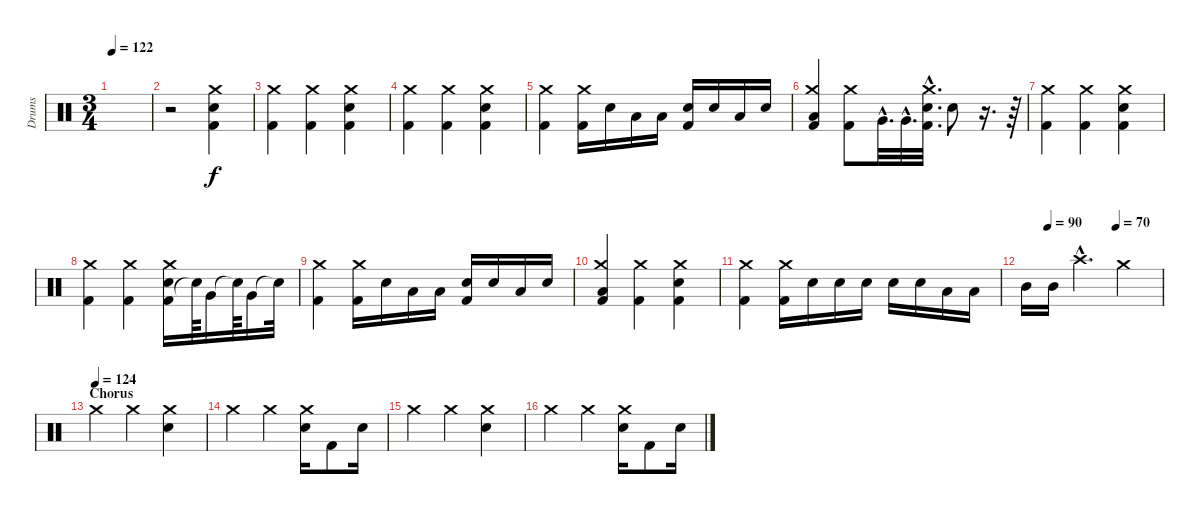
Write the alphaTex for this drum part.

\track ("Drums" "Drums") {instrument percussion}
\staff {score}
\articulation defaults
\ts (3 4)
\tempo 122
\clef neutral
\ks c
|
r.2 ("Kick (hit) 2" "Electric Snare (hit)" "Crash medium (hit)").4 |
("Kick (hit) 2" "Crash medium (hit)").4 ("Kick (hit) 2" "Crash medium (hit)").4 ("Kick (hit) 2" "Electric Snare (hit)" "Crash medium (hit)").4 |
("Kick (hit) 2" "Crash medium (hit)").4 ("Kick (hit) 2" "Crash medium (hit)").4 ("Kick (hit) 2" "Electric Snare (hit)" "Crash medium (hit)").4 |
("Kick (hit) 2" "Crash medium (hit)").4 ("Kick (hit) 2" "Crash medium (hit)").16 "Electric Snare (hit)".16 "Low Tom (hit)".16 "Low Tom (hit)".16 ("Kick (hit) 2" "Electric Snare (hit)").16 "Electric Snare (hit)".16 "Low Tom (hit)".16 "Electric Snare (hit)".16 |
("Kick (hit) 2" "Low Tom (hit)" "Crash medium (hit)").4 ("Kick (hit) 2" "Crash medium (hit)").8 "Very Low Tom (hit)"{hac}.32{d} "Very Low Tom (hit)"{hac}.32{d} ("Kick (hit) 2"{hac} "Electric Snare (hit)"{hac} "Crash medium (hit)"{hac}).32{d} "Electric Snare (hit)".8 r.16{d} r.64 |
("Kick (hit) 2" "Crash medium (hit)").4 ("Kick (hit) 2" "Crash medium (hit)").4 ("Kick (hit) 2" "Electric Snare (hit)" "Crash medium (hit)").4 |
("Kick (hit) 2" "Crash medium (hit)").4 ("Kick (hit) 2" "Crash medium (hit)").4 ("Kick (hit) 2" "Electric Snare (hit)" "Crash medium (hit)").16 "Snare (hit)"{t}.64 "Very Low Tom (hit)".16 "Snare (hit)"{t}.64 "Very Low Tom (hit)".16 "Snare (hit)"{t}.32 |
("Kick (hit) 2" "Crash medium (hit)").4 ("Kick (hit) 2" "Crash medium (hit)").16 "Electric Snare (hit)".16 "Low Tom (hit)".16 "Low Tom (hit)".16 ("Kick (hit) 2" "Electric Snare (hit)").16 "Electric Snare (hit)".16 "Low Tom (hit)".16 "Electric Snare (hit)".16 |
("Kick (hit) 2" "Low Tom (hit)" "Crash medium (hit)").4 ("Kick (hit) 2" "Crash medium (hit)").4 ("Kick (hit) 2" "Electric Snare (hit)" "Crash medium (hit)").4 |
("Kick (hit) 2" "Crash medium (hit)").4 ("Kick (hit) 2" "Crash medium (hit)").16 "Electric Snare (hit)".16 "Electric Snare (hit)".16 "Electric Snare (hit)".16 "Electric Snare (hit)".16 "Electric Snare (hit)".16 "Low Tom (hit)".16 "Low Tom (hit)".16 |
\tempo (90 0.16666666666666666)
\tempo (70 0.6666666666666666)
"Mid Tom (hit)".16 "Mid Tom (hit)".16 "Crash high (hit)"{hac}.4{d} "Crash medium (hit)".4 |
\section ("" "Chorus")
\tempo (124)
"Crash medium (hit)".4 "Crash medium (hit)".4 ("Electric Snare (hit)" "Crash medium (hit)").4 |
"Crash medium (hit)".4 "Crash medium (hit)".4 ("Electric Snare (hit)" "Crash medium (hit)").16 "Kick (hit) 2".8 "Electric Snare (hit)".16 |
"Crash medium (hit)".4 "Crash medium (hit)".4 ("Electric Snare (hit)" "Crash medium (hit)").4 |
"Crash medium (hit)".4 "Crash medium (hit)".4 ("Electric Snare (hit)" "Crash medium (hit)").16 "Kick (hit) 2".8 "Electric Snare (hit)".16
